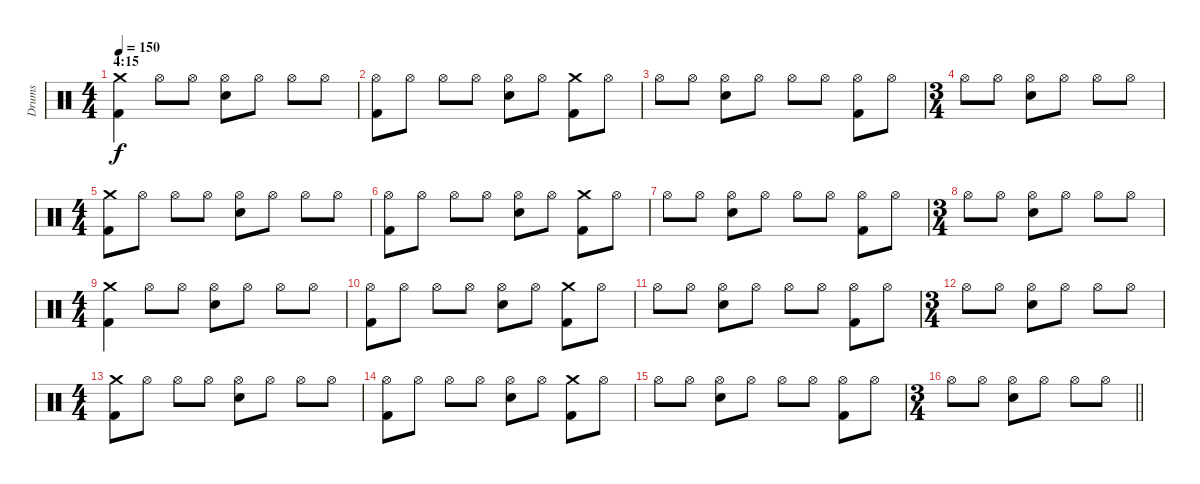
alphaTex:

\track ("Drums" "Drums") {instrument percussion}
\staff {score}
\articulation defaults
\ts (4 4)
\section ("" "4:15")
\tempo 150
\clef neutral
\ks c
("Crash medium (hit)" "Kick (hit) 2").4{dy f} "Hi-Hat (open)".8 "Hi-Hat (open)".8 ("Hi-Hat (open)" "Electric Snare (hit)").8 "Hi-Hat (open)".8 "Hi-Hat (open)".8 "Hi-Hat (open)".8 |
("Hi-Hat (open)" "Kick (hit) 2").8 "Hi-Hat (open)".8 "Hi-Hat (open)".8 "Hi-Hat (open)".8 ("Hi-Hat (open)" "Electric Snare (hit)").8 "Hi-Hat (open)".8 ("Crash medium (hit)" "Kick (hit) 2").8 "Hi-Hat (open)".8 |
"Hi-Hat (open)".8 "Hi-Hat (open)".8 ("Hi-Hat (open)" "Electric Snare (hit)").8 "Hi-Hat (open)".8 "Hi-Hat (open)".8 "Hi-Hat (open)".8 ("Hi-Hat (open)" "Kick (hit) 2").8 "Hi-Hat (open)".8 |
\ts (3 4)
"Hi-Hat (open)".8 "Hi-Hat (open)".8 ("Hi-Hat (open)" "Electric Snare (hit)").8 "Hi-Hat (open)".8 "Hi-Hat (open)".8 "Hi-Hat (open)".8 |
\ts (4 4)
("Crash medium (hit)" "Kick (hit) 2").8 "Hi-Hat (open)".8 "Hi-Hat (open)".8 "Hi-Hat (open)".8 ("Hi-Hat (open)" "Electric Snare (hit)").8 "Hi-Hat (open)".8 "Hi-Hat (open)".8 "Hi-Hat (open)".8 |
("Hi-Hat (open)" "Kick (hit) 2").8 "Hi-Hat (open)".8 "Hi-Hat (open)".8 "Hi-Hat (open)".8 ("Hi-Hat (open)" "Electric Snare (hit)").8 "Hi-Hat (open)".8 ("Crash medium (hit)" "Kick (hit) 2").8 "Hi-Hat (open)".8 |
"Hi-Hat (open)".8 "Hi-Hat (open)".8 ("Hi-Hat (open)" "Electric Snare (hit)").8 "Hi-Hat (open)".8 "Hi-Hat (open)".8 "Hi-Hat (open)".8 ("Hi-Hat (open)" "Kick (hit) 2").8 "Hi-Hat (open)".8 |
\ts (3 4)
"Hi-Hat (open)".8 "Hi-Hat (open)".8 ("Hi-Hat (open)" "Electric Snare (hit)").8 "Hi-Hat (open)".8 "Hi-Hat (open)".8 "Hi-Hat (open)".8 |
\ts (4 4)
("Crash medium (hit)" "Kick (hit) 2").4 "Hi-Hat (open)".8 "Hi-Hat (open)".8 ("Hi-Hat (open)" "Electric Snare (hit)").8 "Hi-Hat (open)".8 "Hi-Hat (open)".8 "Hi-Hat (open)".8 |
("Hi-Hat (open)" "Kick (hit) 2").8 "Hi-Hat (open)".8 "Hi-Hat (open)".8 "Hi-Hat (open)".8 ("Hi-Hat (open)" "Electric Snare (hit)").8 "Hi-Hat (open)".8 ("Crash medium (hit)" "Kick (hit) 2").8 "Hi-Hat (open)".8 |
"Hi-Hat (open)".8 "Hi-Hat (open)".8 ("Hi-Hat (open)" "Electric Snare (hit)").8 "Hi-Hat (open)".8 "Hi-Hat (open)".8 "Hi-Hat (open)".8 ("Hi-Hat (open)" "Kick (hit) 2").8 "Hi-Hat (open)".8 |
\ts (3 4)
"Hi-Hat (open)".8 "Hi-Hat (open)".8 ("Hi-Hat (open)" "Electric Snare (hit)").8 "Hi-Hat (open)".8 "Hi-Hat (open)".8 "Hi-Hat (open)".8 |
\ts (4 4)
("Crash medium (hit)" "Kick (hit) 2").8 "Hi-Hat (open)".8 "Hi-Hat (open)".8 "Hi-Hat (open)".8 ("Hi-Hat (open)" "Electric Snare (hit)").8 "Hi-Hat (open)".8 "Hi-Hat (open)".8 "Hi-Hat (open)".8 |
("Hi-Hat (open)" "Kick (hit) 2").8 "Hi-Hat (open)".8 "Hi-Hat (open)".8 "Hi-Hat (open)".8 ("Hi-Hat (open)" "Electric Snare (hit)").8 "Hi-Hat (open)".8 ("Crash medium (hit)" "Kick (hit) 2").8 "Hi-Hat (open)".8 |
"Hi-Hat (open)".8 "Hi-Hat (open)".8 ("Hi-Hat (open)" "Electric Snare (hit)").8 "Hi-Hat (open)".8 "Hi-Hat (open)".8 "Hi-Hat (open)".8 ("Hi-Hat (open)" "Kick (hit) 2").8 "Hi-Hat (open)".8 |
\ts (3 4)
\barLineRight lightlight "Hi-Hat (open)".8 "Hi-Hat (open)".8
("Hi-Hat (open)" "Electric Snare (hit)").8 "Hi-Hat (open)".8 "Hi-Hat (open)".8 "Hi-Hat (open)".8
